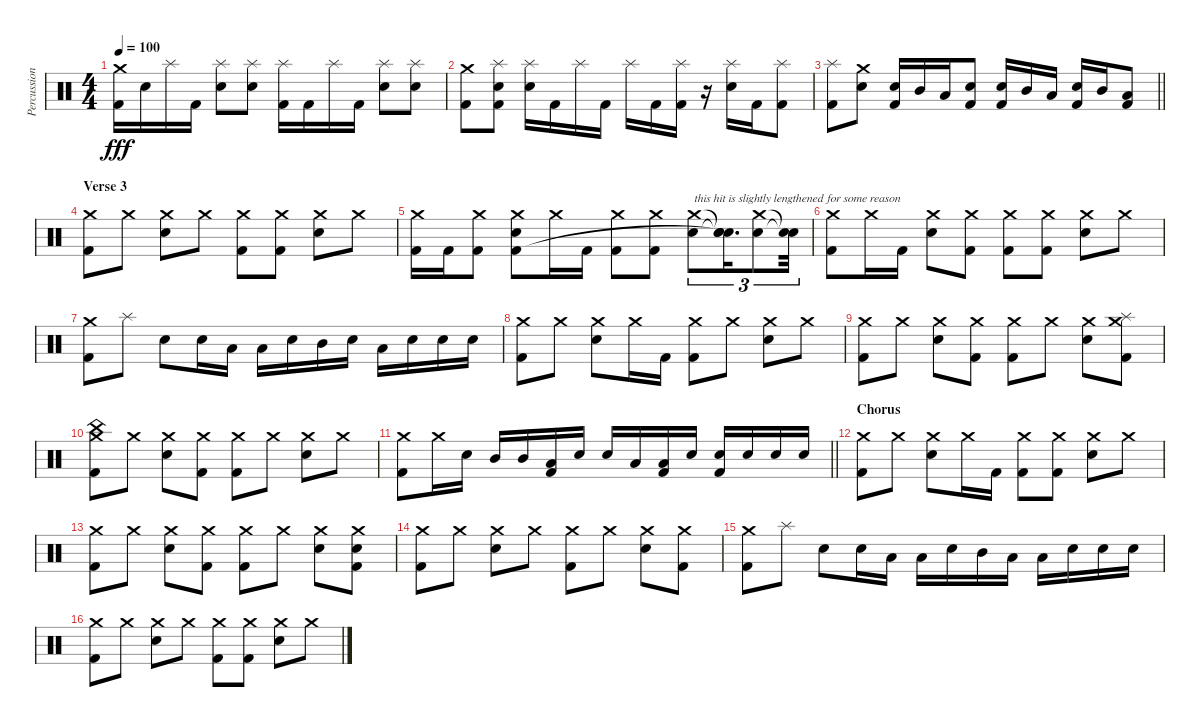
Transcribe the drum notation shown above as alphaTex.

\track ("Percussion" "Percussion") {instrument percussion}
\staff {score}
\articulation defaults
\ts (4 4)
\tempo 100
\clef neutral
\ks c
("Crash medium (hit)" "Kick (hit) 2").16{dy fff} "Snare (hit) 2".16 "Splash (hit)".16 "Kick (hit) 2".16 ("Splash (hit)" "Snare (hit) 2").8 ("Splash (hit)" "Snare (hit) 2").8 ("Splash (hit)" "Kick (hit) 2").16 "Kick (hit) 2".16 "Splash (hit)".16 "Kick (hit) 2".16 ("Splash (hit)" "Snare (hit) 2").8 ("Splash (hit)" "Snare (hit) 2").8 |
("Crash medium (hit)" "Kick (hit) 2").8 ("Splash (hit)" "Snare (hit) 2" "Kick (hit) 2").8 ("Splash (hit)" "Snare (hit) 2").16 "Kick (hit) 2".16 "Splash (hit)".16 "Kick (hit) 2".16 "Splash (hit)".16 "Kick (hit) 2".16 ("Splash (hit)" "Kick (hit) 2").16 r.16 ("Splash (hit)" "Snare (hit) 2").16 "Kick (hit) 2".16 ("Splash (hit)" "Kick (hit) 2").8 |
\barLineRight lightlight
("Splash (hit)" "Kick (hit) 2").8 ("Crash medium (hit)" "Snare (hit) 2").8 ("Snare (hit) 2" "Kick (hit) 2").16 "Mid Tom (hit)".16 "Low Tom (hit)".16 ("Snare (hit) 2" "Kick (hit) 2").8 ("Snare (hit) 2" "Kick (hit) 2").16 "Mid Tom (hit)".16 "Low Tom (hit)".16 ("Snare (hit) 2" "Kick (hit) 2").16 "Mid Tom (hit)".16 ("Low Tom (hit)" "Kick (hit) 2").8 |
\section ("" "Verse 3")
("Crash medium (hit)" "Kick (hit) 2").8 "Crash medium (hit)".8 ("Crash medium (hit)" "Snare (hit) 2").8 "Crash medium (hit)".8 ("Crash medium (hit)" "Kick (hit) 2").8 ("Crash medium (hit)" "Kick (hit) 2").8 ("Crash medium (hit)" "Snare (hit) 2").8 "Crash medium (hit)".8 |
("Crash medium (hit)" "Kick (hit) 2").16 "Kick (hit) 2".16 ("Crash medium (hit)" "Kick (hit) 2").8 ("Crash medium (hit)" "Snare (hit) 2" "Kick (hit) 2").8 "Crash medium (hit)".16 "Kick (hit) 2".16 ("Crash medium (hit)" "Kick (hit) 2").8 ("Crash medium (hit)" "Kick (hit) 2").8 ("Crash medium (hit)" "Snare (hit) 2").8{tu (3 2) txt "this hit is slightly lengthened for some reason"} ("Snare (hit)"{t} "Snare (hit)"{t} "Snare (hit)"{t}).16{d tu (3 2)} ("Crash medium (hit)" "Snare (hit) 2").8{tu (3 2)} ("Snare (hit)"{t} "Snare (hit)"{t}).32{tu (3 2)} |
("Crash medium (hit)" "Kick (hit) 2").8 "Crash medium (hit)".16 "Kick (hit) 2".16 ("Crash medium (hit)" "Snare (hit) 2").8 ("Crash medium (hit)" "Kick (hit) 2").8 ("Crash medium (hit)" "Kick (hit) 2").8 ("Crash medium (hit)" "Kick (hit) 2").8 ("Crash medium (hit)" "Snare (hit) 2").8 "Crash medium (hit)".8 |
("Crash medium (hit)" "Kick (hit) 2").8 "Splash (hit)".8 "Snare (hit) 2".8 "Snare (hit) 2".16 "Low Tom (hit)".16 "Low Tom (hit)".16 "Snare (hit) 2".16 "Mid Tom (hit)".16 "Snare (hit) 2".16 "Low Tom (hit)".16 "Snare (hit) 2".16 "Snare (hit) 2".16 "Snare (hit) 2".16 |
("Crash medium (hit)" "Kick (hit) 2").8 "Crash medium (hit)".8 ("Crash medium (hit)" "Snare (hit) 2").8 "Crash medium (hit)".16 "Kick (hit) 2".16 ("Crash medium (hit)" "Kick (hit) 2").8 "Crash medium (hit)".8 ("Crash medium (hit)" "Snare (hit) 2").8 "Crash medium (hit)".8 |
("Crash medium (hit)" "Kick (hit) 2").8 "Crash medium (hit)".8 ("Crash medium (hit)" "Snare (hit) 2").8 ("Crash medium (hit)" "Kick (hit) 2").8 ("Crash medium (hit)" "Kick (hit) 2").8 "Crash medium (hit)".8 ("Crash medium (hit)" "Snare (hit) 2").8 ("Crash medium (hit)" "Splash (hit)" "Kick (hit) 2").8 |
("Crash medium (hit)" "China (hit)" "Kick (hit) 2").8 "Crash medium (hit)".8 ("Crash medium (hit)" "Snare (hit) 2").8 ("Crash medium (hit)" "Kick (hit) 2").8 ("Crash medium (hit)" "Kick (hit) 2").8 "Crash medium (hit)".8 ("Crash medium (hit)" "Snare (hit) 2").8 "Crash medium (hit)".8 |
\barLineRight lightlight
("Crash medium (hit)" "Kick (hit) 2").8 "Crash medium (hit)".16 "Snare (hit) 2".16 "Mid Tom (hit)".16 "Mid Tom (hit)".16 ("Low Tom (hit)" "Kick (hit) 2").16 "Snare (hit) 2".16 "Snare (hit) 2".16 "Low Tom (hit)".16 ("Low Tom (hit)" "Kick (hit) 2").16 "Snare (hit) 2".16 ("Snare (hit) 2" "Kick (hit) 2").16 "Snare (hit) 2".16 "Snare (hit) 2".16 "Snare (hit) 2".16 |
\section ("" "Chorus")
("Crash medium (hit)" "Kick (hit) 2").8 "Crash medium (hit)".8 ("Crash medium (hit)" "Snare (hit) 2").8 "Crash medium (hit)".16 "Kick (hit) 2".16 ("Crash medium (hit)" "Kick (hit) 2").8 ("Crash medium (hit)" "Kick (hit) 2").8 ("Crash medium (hit)" "Snare (hit) 2").8 "Crash medium (hit)".8 |
("Crash medium (hit)" "Kick (hit) 2").8 "Crash medium (hit)".8 ("Crash medium (hit)" "Snare (hit) 2").8 ("Crash medium (hit)" "Kick (hit) 2").8 ("Crash medium (hit)" "Kick (hit) 2").8 "Crash medium (hit)".8 ("Crash medium (hit)" "Snare (hit) 2").8 ("Crash medium (hit)" "Snare (hit) 2" "Kick (hit) 2").8 |
("Crash medium (hit)" "Kick (hit) 2").8 "Crash medium (hit)".8 ("Crash medium (hit)" "Snare (hit) 2").8 "Crash medium (hit)".8 ("Crash medium (hit)" "Kick (hit) 2").8 "Crash medium (hit)".8 ("Crash medium (hit)" "Snare (hit) 2").8 ("Crash medium (hit)" "Kick (hit) 2").8 |
("Crash medium (hit)" "Kick (hit) 2").8 "Splash (hit)".8 "Snare (hit) 2".8 "Snare (hit) 2".16 "Low Tom (hit)".16 "Low Tom (hit)".16 "Snare (hit) 2".16 "Mid Tom (hit)".16 "Low Tom (hit)".16 "Low Tom (hit)".16 "Snare (hit) 2".16 "Snare (hit) 2".16 "Snare (hit) 2".16 |
("Crash medium (hit)" "Kick (hit) 2").8 "Crash medium (hit)".8 ("Crash medium (hit)" "Snare (hit) 2").8 "Crash medium (hit)".8 ("Crash medium (hit)" "Kick (hit) 2").8 ("Crash medium (hit)" "Kick (hit) 2").8 ("Crash medium (hit)" "Snare (hit) 2").8 "Crash medium (hit)".8
